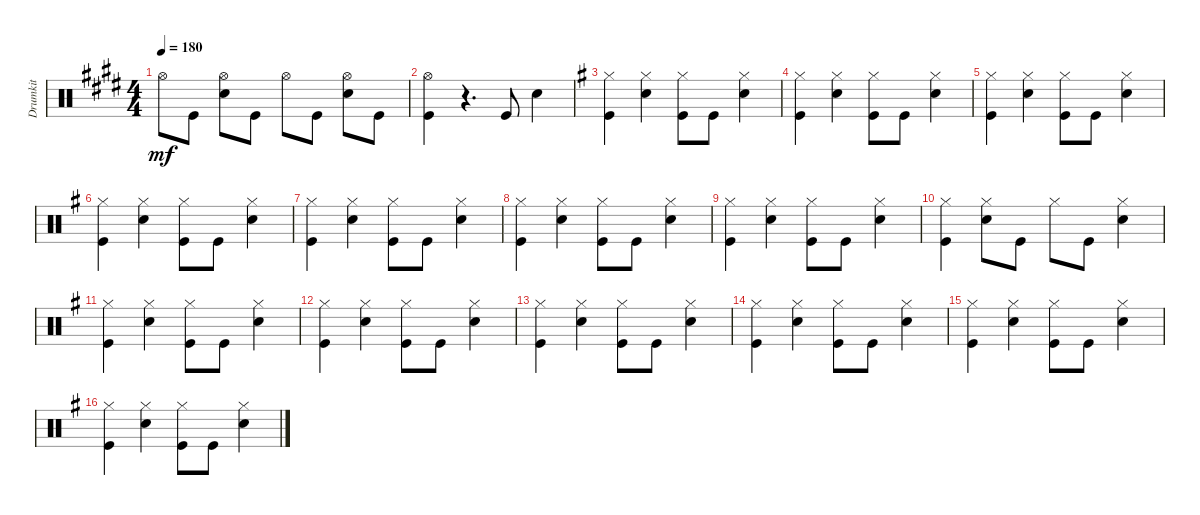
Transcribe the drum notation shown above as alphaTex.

\track ("Drumkit" "Drumkit") {instrument percussion}
\staff {score}
\articulation defaults
\ts (4 4)
\tempo 180
\clef neutral
\ks e "Hi-Hat (open)".8{dy mf} "Kick (hit)".8
("Snare (hit) 2" "Hi-Hat (open)").8 "Kick (hit)".8 "Hi-Hat (open)".8 "Kick (hit)".8 ("Snare (hit) 2" "Hi-Hat (open)").8 "Kick (hit)".8 |
("Hi-Hat (open)" "Kick (hit)").4 r.4{d} "Kick (hit)".8 "Snare (hit) 2".4 |
\ks g
("Hi-Hat (closed)" "Kick (hit)").4 ("Hi-Hat (closed)" "Snare (hit) 2").4 ("Kick (hit)" "Hi-Hat (closed)").8 "Kick (hit)".8 ("Snare (hit) 2" "Hi-Hat (closed)").4 |
("Hi-Hat (closed)" "Kick (hit)").4 ("Hi-Hat (closed)" "Snare (hit) 2").4 ("Kick (hit)" "Hi-Hat (closed)").8 "Kick (hit)".8 ("Snare (hit) 2" "Hi-Hat (closed)").4 |
("Hi-Hat (closed)" "Kick (hit)").4 ("Hi-Hat (closed)" "Snare (hit) 2").4 ("Kick (hit)" "Hi-Hat (closed)").8 "Kick (hit)".8 ("Snare (hit) 2" "Hi-Hat (closed)").4 |
("Hi-Hat (closed)" "Kick (hit)").4 ("Hi-Hat (closed)" "Snare (hit) 2").4 ("Kick (hit)" "Hi-Hat (closed)").8 "Kick (hit)".8 ("Snare (hit) 2" "Hi-Hat (closed)").4 |
("Hi-Hat (closed)" "Kick (hit)").4 ("Hi-Hat (closed)" "Snare (hit) 2").4 ("Kick (hit)" "Hi-Hat (closed)").8 "Kick (hit)".8 ("Snare (hit) 2" "Hi-Hat (closed)").4 |
("Hi-Hat (closed)" "Kick (hit)").4 ("Hi-Hat (closed)" "Snare (hit) 2").4 ("Kick (hit)" "Hi-Hat (closed)").8 "Kick (hit)".8 ("Snare (hit) 2" "Hi-Hat (closed)").4 |
("Hi-Hat (closed)" "Kick (hit)").4 ("Hi-Hat (closed)" "Snare (hit) 2").4 ("Kick (hit)" "Hi-Hat (closed)").8 "Kick (hit)".8 ("Snare (hit) 2" "Hi-Hat (closed)").4 |
("Hi-Hat (closed)" "Kick (hit)").4 ("Hi-Hat (closed)" "Snare (hit) 2").8 "Kick (hit)".8 "Hi-Hat (closed)".8 "Kick (hit)".8 ("Snare (hit) 2" "Hi-Hat (closed)").4 |
("Hi-Hat (closed)" "Kick (hit)").4 ("Hi-Hat (closed)" "Snare (hit) 2").4 ("Kick (hit)" "Hi-Hat (closed)").8 "Kick (hit)".8 ("Snare (hit) 2" "Hi-Hat (closed)").4 |
("Hi-Hat (closed)" "Kick (hit)").4 ("Hi-Hat (closed)" "Snare (hit) 2").4 ("Kick (hit)" "Hi-Hat (closed)").8 "Kick (hit)".8 ("Snare (hit) 2" "Hi-Hat (closed)").4 |
("Hi-Hat (closed)" "Kick (hit)").4 ("Hi-Hat (closed)" "Snare (hit) 2").4 ("Kick (hit)" "Hi-Hat (closed)").8 "Kick (hit)".8 ("Snare (hit) 2" "Hi-Hat (closed)").4 |
("Hi-Hat (closed)" "Kick (hit)").4 ("Hi-Hat (closed)" "Snare (hit) 2").4 ("Kick (hit)" "Hi-Hat (closed)").8 "Kick (hit)".8 ("Snare (hit) 2" "Hi-Hat (closed)").4 |
("Hi-Hat (closed)" "Kick (hit)").4 ("Hi-Hat (closed)" "Snare (hit) 2").4 ("Kick (hit)" "Hi-Hat (closed)").8 "Kick (hit)".8 ("Snare (hit) 2" "Hi-Hat (closed)").4 |
("Hi-Hat (closed)" "Kick (hit)").4 ("Hi-Hat (closed)" "Snare (hit) 2").4 ("Kick (hit)" "Hi-Hat (closed)").8 "Kick (hit)".8 ("Snare (hit) 2" "Hi-Hat (closed)").4
